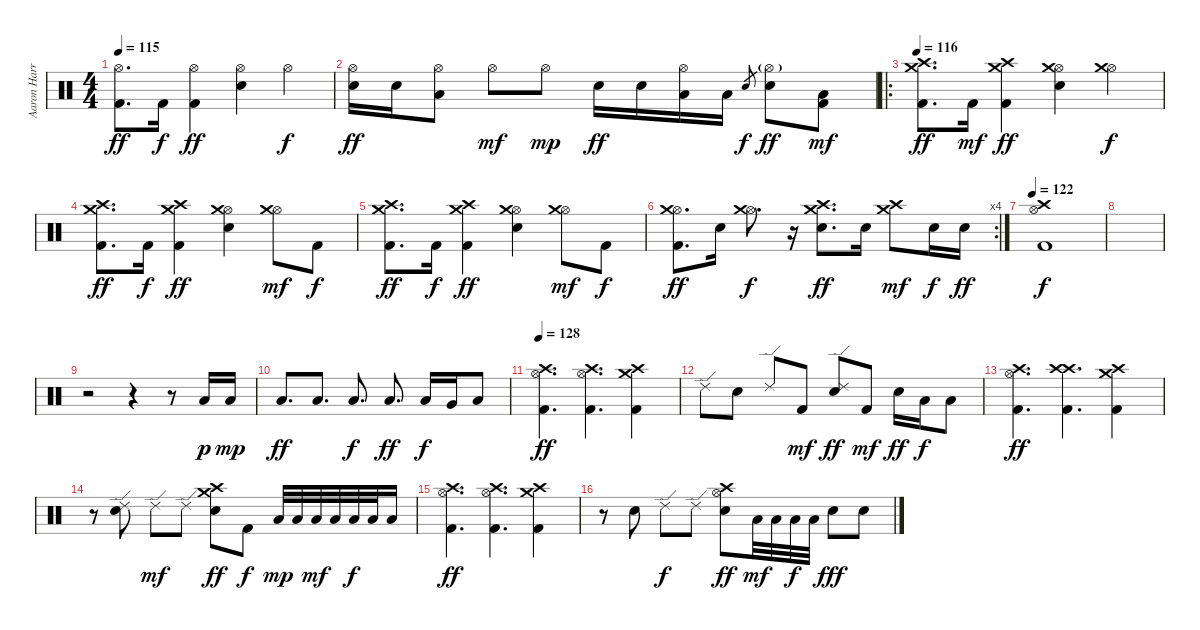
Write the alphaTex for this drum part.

\track ("Aaron Harris" "Aaron Harr") {instrument percussion}
\staff {score}
\articulation defaults
\ts (4 4)
\tempo 115
\clef neutral
\ks c
("Hi-Hat (open)" "Kick (hit) 2").8{d dy ff} "Kick (hit) 2".16{dy f} ("Hi-Hat (open)" "Kick (hit) 2").4{dy ff} ("Hi-Hat (open)" "Electric Snare (hit)").4 "Hi-Hat (open)".4{dy f} |
("Hi-Hat (open)" "Electric Snare (hit)").16{dy ff} "Electric Snare (hit)".16 ("Hi-Hat (open)" "Low Tom (hit)").8 "Hi-Hat (open)".8{dy mf} "Hi-Hat (open)".8{dy mp} "Electric Snare (hit)".16{dy ff} "Electric Snare (hit)".16 ("Hi-Hat (open)" "Low Tom (hit)").16 "Low Tom (hit)".16 "Electric Snare (hit)".8{gr dy f} ("Hi-Hat (open)"{g} "Electric Snare (hit)").8{dy ff} ("Low Floor Tom (hit)" "Kick (hit) 2").8{dy mf} |
\ro
\tempo 116
("Crash medium (hit)" "Crash high (hit)" "Kick (hit) 2").8{d dy ff} "Kick (hit) 2".16{dy mf} ("Crash medium (hit)" "Crash high (hit)" "Kick (hit) 2").4{dy ff} ("Hi-Hat (open)" "Crash medium (hit)" "Electric Snare (hit)").4 ("Hi-Hat (open)" "Crash medium (hit)").4{dy f} |
("Crash medium (hit)" "Crash high (hit)" "Kick (hit) 2").8{d dy ff} "Kick (hit) 2".16{dy f} ("Crash medium (hit)" "Crash high (hit)" "Kick (hit) 2").4{dy ff} ("Hi-Hat (open)" "Crash medium (hit)" "Electric Snare (hit)").4 ("Hi-Hat (open)" "Crash medium (hit)").8{dy mf} "Kick (hit) 2".8{dy f} |
("Crash medium (hit)" "Crash high (hit)" "Kick (hit) 2").8{d dy ff} "Kick (hit) 2".16{dy f} ("Crash medium (hit)" "Crash high (hit)" "Kick (hit) 2").4{dy ff} ("Hi-Hat (open)" "Crash medium (hit)" "Electric Snare (hit)").4 ("Hi-Hat (open)" "Crash medium (hit)").8{dy mf} "Kick (hit) 2".8{dy f} |
\rc 4
("Hi-Hat (open)" "Crash medium (hit)" "Kick (hit) 2").8{d dy ff} "Electric Snare (hit)".16 ("Hi-Hat (open)" "Crash medium (hit)").8{d dy f} r.16 ("Crash high (hit)" "Crash medium (hit)" "Electric Snare (hit)").8{d dy ff} "Electric Snare (hit)".16 ("Crash high (hit)" "Crash medium (hit)").8{dy mf} "Electric Snare (hit)".16{dy f} "Electric Snare (hit)".16{dy ff} |
\tempo 122
("Hi-Hat (open)" "Crash high (hit)" "Kick (hit) 2").1{dy f} |
|
r.2 r.4 r.8 "Low Tom (hit)".16{dy p} "Low Tom (hit)".16{dy mp} |
"Low Tom (hit)".8{d dy ff} "Low Tom (hit)".8{d} "Low Tom (hit)".8{d dy f} "Low Tom (hit)".8{d dy ff} "Low Tom (hit)".16{dy f} "Very Low Tom (hit)".16 "Low Floor Tom (hit)".8 |
\tempo 128
("Crash high (hit)" "Hi-Hat (open)" "Kick (hit) 2").4{d dy ff} ("Crash high (hit)" "Hi-Hat (open)" "Kick (hit) 2").4{d} ("Crash medium (hit)" "Crash high (hit)" "Kick (hit) 2").4 |
"Ride (edge) 2".8 "Electric Snare (hit)".8 "Ride (edge) 2".8 "Kick (hit) 2".8{dy mf} ("Ride (edge) 2" "Electric Snare (hit)").8{dy ff} "Kick (hit) 2".8{dy mf} "Electric Snare (hit)".16{dy ff} "Low Tom (hit)".16{dy f} "Low Floor Tom (hit)".8 |
("Crash high (hit)" "Hi-Hat (open)" "Kick (hit) 2").4{d dy ff} ("Crash high (hit)" "Crash high (hit)" "Kick (hit) 2").4{d} ("Crash medium (hit)" "Crash high (hit)" "Kick (hit) 2").4 |
r.8 ("Ride (edge) 2" "Electric Snare (hit)").8 "Ride (edge) 2".8{dy mf} "Ride (edge) 2".8 ("Crash high (hit)" "Crash medium (hit)" "Electric Snare (hit)").8{dy ff} "Kick (hit) 2".8{dy f} "Low Tom (hit)".32{dy mp} "Low Tom (hit)".32 "Low Tom (hit)".32{dy mf} "Low Tom (hit)".32 "Low Tom (hit)".32{dy f} "Low Tom (hit)".32 "Low Tom (hit)".16 |
("Crash high (hit)" "Hi-Hat (open)" "Kick (hit) 2").4{d dy ff} ("Crash high (hit)" "Hi-Hat (open)" "Kick (hit) 2").4{d} ("Crash medium (hit)" "Crash high (hit)" "Kick (hit) 2").4 |
r.8 "Electric Snare (hit)".8 "Ride (edge) 2".8{dy f} "Ride (edge) 2".8 ("Hi-Hat (open)" "Crash high (hit)" "Electric Snare (hit)").8{dy ff} "Low Tom (hit)".32{dy mf} "Low Tom (hit)".32 "Low Tom (hit)".32{dy f} "Low Tom (hit)".32 "Electric Snare (hit)".8{dy fff} "Electric Snare (hit)".8
